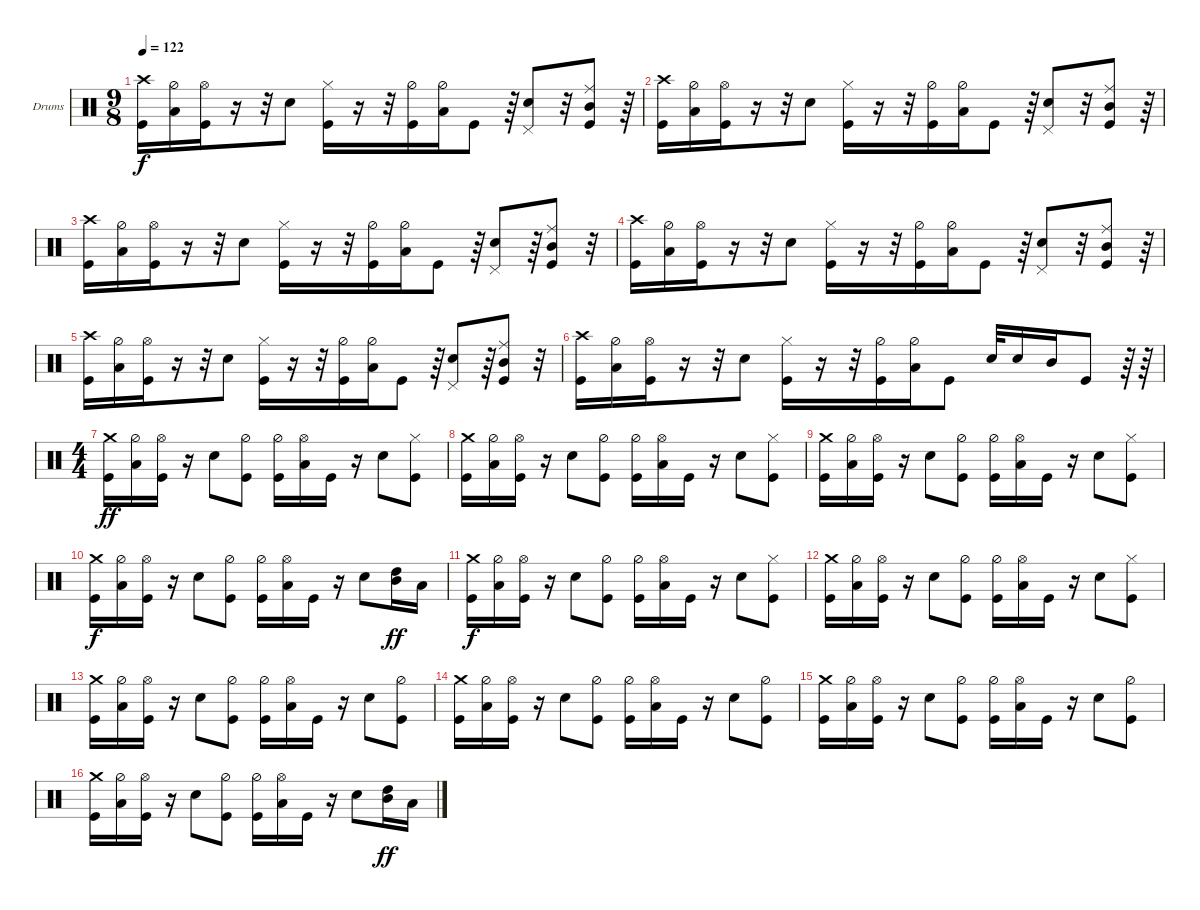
\defaultSystemsLayout 4
\bracketExtendMode groupsimilarinstruments
\firstSystemTrackNameOrientation horizontal
\otherSystemsTrackNameOrientation horizontal
\track ("Drumkit" "Drums") {instrument percussion}
\staff {score}
\articulation defaults
\ts (9 8)
\tempo 122
\clef neutral
\ks c
("Kick (hit)" "Crash high (hit)").16{dy f} ("Hi-Hat (half)" "Low Tom (hit)").16 ("Kick (hit)" "Hi-Hat (open)").16 r.16 r.32 "Snare (hit) 2".8 ("Kick (hit)" "Hi-Hat (closed)").16 r.16 r.32 ("Kick (hit)" "Hi-Hat (half)").16 ("Hi-Hat (half)" "Low Tom (hit)").16 "Kick (hit)".8 r.64 ("Snare (hit) 2" "Pedal Hi-Hat (hit)").8 r.32 ("Kick (hit)" "Mid Tom (hit)" "Ride (middle)").8 r.64 |
("Kick (hit)" "Crash high (hit)").16 ("Hi-Hat (half)" "Low Tom (hit)").16 ("Kick (hit)" "Hi-Hat (open)").16 r.16 r.32 "Snare (hit) 2".8 ("Kick (hit)" "Hi-Hat (closed)").16 r.16 r.32 ("Kick (hit)" "Hi-Hat (half)").16 ("Hi-Hat (half)" "Low Tom (hit)").16 "Kick (hit)".8 r.64 ("Snare (hit) 2" "Pedal Hi-Hat (hit)").8 r.32 ("Kick (hit)" "Mid Tom (hit)" "Ride (middle)").8 r.64 |
("Kick (hit)" "Crash high (hit)").16 ("Hi-Hat (half)" "Low Tom (hit)").16 ("Kick (hit)" "Hi-Hat (open)").16 r.16 r.32 "Snare (hit) 2".8 ("Kick (hit)" "Hi-Hat (closed)").16 r.16 r.32 ("Kick (hit)" "Hi-Hat (half)").16 ("Hi-Hat (half)" "Low Tom (hit)").16 "Kick (hit)".8 r.64 ("Snare (hit) 2" "Pedal Hi-Hat (hit)").8 r.64 ("Kick (hit)" "Mid Tom (hit)" "Ride (middle)").8 r.32 |
("Kick (hit)" "Crash high (hit)").16 ("Hi-Hat (half)" "Low Tom (hit)").16 ("Kick (hit)" "Hi-Hat (open)").16 r.16 r.32 "Snare (hit) 2".8 ("Kick (hit)" "Hi-Hat (closed)").16 r.16 r.32 ("Kick (hit)" "Hi-Hat (half)").16 ("Hi-Hat (half)" "Low Tom (hit)").16 "Kick (hit)".8 r.64 ("Snare (hit) 2" "Pedal Hi-Hat (hit)").8 r.32 ("Kick (hit)" "Mid Tom (hit)" "Ride (middle)").8 r.64 |
("Kick (hit)" "Crash high (hit)").16 ("Hi-Hat (half)" "Low Tom (hit)").16 ("Kick (hit)" "Hi-Hat (open)").16 r.16 r.32 "Snare (hit) 2".8 ("Kick (hit)" "Hi-Hat (closed)").16 r.16 r.32 ("Kick (hit)" "Hi-Hat (half)").16 ("Hi-Hat (half)" "Low Tom (hit)").16 "Kick (hit)".8 r.64 ("Snare (hit) 2" "Pedal Hi-Hat (hit)").8 r.64 ("Kick (hit)" "Mid Tom (hit)" "Ride (middle)").8 r.32 |
("Kick (hit)" "Crash high (hit)").16 ("Hi-Hat (half)" "Low Tom (hit)").16 ("Kick (hit)" "Hi-Hat (open)").16 r.16 r.32 "Snare (hit) 2".8 ("Kick (hit)" "Hi-Hat (closed)").16 r.16 r.32 ("Kick (hit)" "Hi-Hat (half)").16 ("Hi-Hat (half)" "Low Tom (hit)").16 "Kick (hit)".8 "Snare (hit) 2".32 "Snare (hit) 2".16 "Mid Tom (hit)".16 "Kick (hit)".8 r.64 r.64 |
\ts (4 4)
("Kick (hit)" "Crash medium (hit)").16{dy ff} ("Hi-Hat (half)" "Low Tom (hit)").16 ("Kick (hit)" "Hi-Hat (open)").16 r.16 "Snare (hit) 2".8 ("Kick (hit)" "Hi-Hat (half)").8 ("Kick (hit)" "Hi-Hat (half)").16 ("Low Tom (hit)" "Hi-Hat (open)").16 "Kick (hit)".16 r.16 "Snare (hit) 2".8 ("Kick (hit)" "Hi-Hat (closed)").8 |
("Kick (hit)" "Crash medium (hit)").16 ("Hi-Hat (half)" "Low Tom (hit)").16 ("Kick (hit)" "Hi-Hat (open)").16 r.16 "Snare (hit) 2".8 ("Kick (hit)" "Hi-Hat (half)").8 ("Kick (hit)" "Hi-Hat (half)").16 ("Low Tom (hit)" "Hi-Hat (open)").16 "Kick (hit)".16 r.16 "Snare (hit) 2".8 ("Kick (hit)" "Hi-Hat (closed)").8 |
("Kick (hit)" "Crash medium (hit)").16 ("Hi-Hat (half)" "Low Tom (hit)").16 ("Kick (hit)" "Hi-Hat (open)").16 r.16 "Snare (hit) 2".8 ("Kick (hit)" "Hi-Hat (half)").8 ("Kick (hit)" "Hi-Hat (half)").16 ("Low Tom (hit)" "Hi-Hat (open)").16 "Kick (hit)".16 r.16 "Snare (hit) 2".8 ("Kick (hit)" "Hi-Hat (closed)").8 |
("Kick (hit)" "Crash medium (hit)").16{dy f} ("Hi-Hat (half)" "Low Tom (hit)").16 ("Kick (hit)" "Hi-Hat (open)").16 r.16 "Snare (hit) 2".8 ("Kick (hit)" "Hi-Hat (half)").8 ("Kick (hit)" "Hi-Hat (half)").16 ("Low Tom (hit)" "Hi-Hat (open)").16 "Kick (hit)".16 r.16 "Snare (hit) 2".8 ("Mid Tom (hit)" "High Tom (hit)").16{dy ff} "Low Tom (hit)".16 |
("Kick (hit)" "Crash medium (hit)").16{dy f} ("Hi-Hat (half)" "Low Tom (hit)").16 ("Kick (hit)" "Hi-Hat (open)").16 r.16 "Snare (hit) 2".8 ("Kick (hit)" "Hi-Hat (half)").8 ("Kick (hit)" "Hi-Hat (half)").16 ("Low Tom (hit)" "Hi-Hat (open)").16 "Kick (hit)".16 r.16 "Snare (hit) 2".8 ("Kick (hit)" "Hi-Hat (closed)").8 |
("Kick (hit)" "Crash medium (hit)").16 ("Hi-Hat (half)" "Low Tom (hit)").16 ("Kick (hit)" "Hi-Hat (open)").16 r.16 "Snare (hit) 2".8 ("Kick (hit)" "Hi-Hat (half)").8 ("Kick (hit)" "Hi-Hat (half)").16 ("Low Tom (hit)" "Hi-Hat (open)").16 "Kick (hit)".16 r.16 "Snare (hit) 2".8 ("Kick (hit)" "Hi-Hat (closed)").8 |
("Kick (hit)" "Crash medium (hit)").16 ("Hi-Hat (half)" "Low Tom (hit)").16 ("Kick (hit)" "Hi-Hat (open)").16 r.16 "Snare (hit) 2".8 ("Kick (hit)" "Hi-Hat (half)").8 ("Kick (hit)" "Hi-Hat (half)").16 ("Low Tom (hit)" "Hi-Hat (open)").16 "Kick (hit)".16 r.16 "Snare (hit) 2".8 ("Kick (hit)" "Hi-Hat (half)").8 |
("Kick (hit)" "Crash medium (hit)").16 ("Hi-Hat (half)" "Low Tom (hit)").16 ("Kick (hit)" "Hi-Hat (open)").16 r.16 "Snare (hit) 2".8 ("Kick (hit)" "Hi-Hat (half)").8 ("Kick (hit)" "Hi-Hat (half)").16 ("Low Tom (hit)" "Hi-Hat (open)").16 "Kick (hit)".16 r.16 "Snare (hit) 2".8 ("Kick (hit)" "Hi-Hat (half)").8 |
("Kick (hit)" "Crash medium (hit)").16 ("Hi-Hat (half)" "Low Tom (hit)").16 ("Kick (hit)" "Hi-Hat (open)").16 r.16 "Snare (hit) 2".8 ("Kick (hit)" "Hi-Hat (half)").8 ("Kick (hit)" "Hi-Hat (half)").16 ("Low Tom (hit)" "Hi-Hat (open)").16 "Kick (hit)".16 r.16 "Snare (hit) 2".8 ("Kick (hit)" "Hi-Hat (half)").8 |
("Kick (hit)" "Crash medium (hit)").16 ("Hi-Hat (half)" "Low Tom (hit)").16 ("Kick (hit)" "Hi-Hat (open)").16 r.16 "Snare (hit) 2".8 ("Kick (hit)" "Hi-Hat (half)").8 ("Kick (hit)" "Hi-Hat (half)").16 ("Low Tom (hit)" "Hi-Hat (open)").16 "Kick (hit)".16 r.16 "Snare (hit) 2".8 ("Mid Tom (hit)" "High Tom (hit)").16{dy ff} "Low Tom (hit)".16
